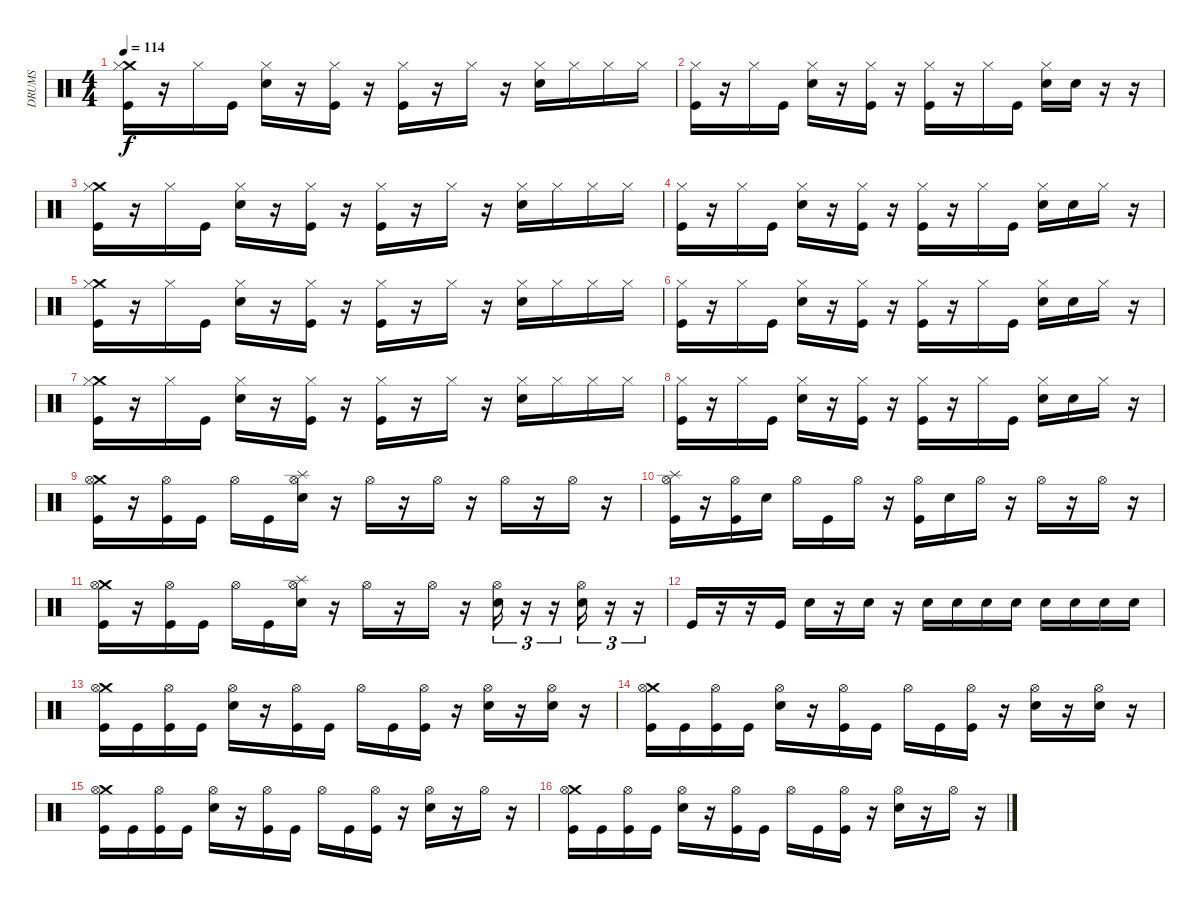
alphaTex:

\track ("DRUMS" "DRUMS") {instrument percussion}
\staff {score}
\articulation defaults
\ts (4 4)
\tempo 114
\clef neutral
\ks c
("Crash medium (hit)" "Hi-Hat (closed)" "Kick (hit)").16{dy f} r.16 "Hi-Hat (closed)".16 "Kick (hit)".16 ("Hi-Hat (closed)" "Electric Snare (hit)").16 r.16 ("Hi-Hat (closed)" "Kick (hit)").16 r.16 ("Hi-Hat (closed)" "Kick (hit)").16 r.16 "Hi-Hat (closed)".16 r.16 ("Hi-Hat (closed)" "Electric Snare (hit)").16 "Hi-Hat (closed)".16 "Hi-Hat (closed)".16 "Hi-Hat (closed)".16 |
("Hi-Hat (closed)" "Kick (hit)").16 r.16 "Hi-Hat (closed)".16 "Kick (hit)".16 ("Hi-Hat (closed)" "Electric Snare (hit)").16 r.16 ("Hi-Hat (closed)" "Kick (hit)").16 r.16 ("Hi-Hat (closed)" "Kick (hit)").16 r.16 "Hi-Hat (closed)".16 "Kick (hit)".16 ("Hi-Hat (closed)" "Electric Snare (hit)").16 "Electric Snare (hit)".16 r.16 r.16 |
("Crash medium (hit)" "Hi-Hat (closed)" "Kick (hit)").16 r.16 "Hi-Hat (closed)".16 "Kick (hit)".16 ("Hi-Hat (closed)" "Electric Snare (hit)").16 r.16 ("Hi-Hat (closed)" "Kick (hit)").16 r.16 ("Hi-Hat (closed)" "Kick (hit)").16 r.16 "Hi-Hat (closed)".16 r.16 ("Hi-Hat (closed)" "Electric Snare (hit)").16 "Hi-Hat (closed)".16 "Hi-Hat (closed)".16 "Hi-Hat (closed)".16 |
("Hi-Hat (closed)" "Kick (hit)").16 r.16 "Hi-Hat (closed)".16 "Kick (hit)".16 ("Hi-Hat (closed)" "Electric Snare (hit)").16 r.16 ("Hi-Hat (closed)" "Kick (hit)").16 r.16 ("Hi-Hat (closed)" "Kick (hit)").16 r.16 "Hi-Hat (closed)".16 "Kick (hit)".16 ("Hi-Hat (closed)" "Electric Snare (hit)").16 "Electric Snare (hit)".16 "Hi-Hat (closed)".16 r.16 |
("Crash medium (hit)" "Hi-Hat (closed)" "Kick (hit)").16 r.16 "Hi-Hat (closed)".16 "Kick (hit)".16 ("Hi-Hat (closed)" "Electric Snare (hit)").16 r.16 ("Hi-Hat (closed)" "Kick (hit)").16 r.16 ("Hi-Hat (closed)" "Kick (hit)").16 r.16 "Hi-Hat (closed)".16 r.16 ("Hi-Hat (closed)" "Electric Snare (hit)").16 "Hi-Hat (closed)".16 "Hi-Hat (closed)".16 "Hi-Hat (closed)".16 |
("Hi-Hat (closed)" "Kick (hit)").16 r.16 "Hi-Hat (closed)".16 "Kick (hit)".16 ("Hi-Hat (closed)" "Electric Snare (hit)").16 r.16 ("Hi-Hat (closed)" "Kick (hit)").16 r.16 ("Hi-Hat (closed)" "Kick (hit)").16 r.16 "Hi-Hat (closed)".16 "Kick (hit)".16 ("Hi-Hat (closed)" "Electric Snare (hit)").16 "Electric Snare (hit)".16 "Hi-Hat (closed)".16 r.16 |
("Crash medium (hit)" "Hi-Hat (closed)" "Kick (hit)").16 r.16 "Hi-Hat (closed)".16 "Kick (hit)".16 ("Hi-Hat (closed)" "Electric Snare (hit)").16 r.16 ("Hi-Hat (closed)" "Kick (hit)").16 r.16 ("Hi-Hat (closed)" "Kick (hit)").16 r.16 "Hi-Hat (closed)".16 r.16 ("Hi-Hat (closed)" "Electric Snare (hit)").16 "Hi-Hat (closed)".16 "Hi-Hat (closed)".16 "Hi-Hat (closed)".16 |
("Hi-Hat (closed)" "Kick (hit)").16 r.16 "Hi-Hat (closed)".16 "Kick (hit)".16 ("Hi-Hat (closed)" "Electric Snare (hit)").16 r.16 ("Hi-Hat (closed)" "Kick (hit)").16 r.16 ("Hi-Hat (closed)" "Kick (hit)").16 r.16 "Hi-Hat (closed)".16 "Kick (hit)".16 ("Hi-Hat (closed)" "Electric Snare (hit)").16 "Electric Snare (hit)".16 "Hi-Hat (closed)".16 r.16 |
("Crash medium (hit)" "Hi-Hat (open)" "Kick (hit)").16 r.16 ("Hi-Hat (open)" "Kick (hit)").16 "Kick (hit)".16 "Hi-Hat (open)".16 "Kick (hit)".16 ("Splash (hit)" "Hi-Hat (open)" "Electric Snare (hit)").16 r.16 "Hi-Hat (open)".16 r.16 "Hi-Hat (open)".16 r.16 "Hi-Hat (open)".16 r.16 "Hi-Hat (open)".16 r.16 |
("Splash (hit)" "Hi-Hat (open)" "Kick (hit)").16 r.16 ("Hi-Hat (open)" "Kick (hit)").16 "Electric Snare (hit)".16 "Hi-Hat (open)".16 "Kick (hit)".16 "Hi-Hat (open)".16 r.16 ("Hi-Hat (open)" "Kick (hit)").16 "Electric Snare (hit)".16 "Hi-Hat (open)".16 r.16 "Hi-Hat (open)".16 r.16 "Hi-Hat (open)".16 r.16 |
("Crash medium (hit)" "Hi-Hat (open)" "Kick (hit)").16 r.16 ("Hi-Hat (open)" "Kick (hit)").16 "Kick (hit)".16 "Hi-Hat (open)".16 "Kick (hit)".16 ("Splash (hit)" "Hi-Hat (open)" "Electric Snare (hit)").16 r.16 "Hi-Hat (open)".16 r.16 "Hi-Hat (open)".16 r.16 ("Hi-Hat (open)" "Electric Snare (hit)").16{tu (3 2)} r.16{tu (3 2)} r.16{tu (3 2)} ("Hi-Hat (open)" "Electric Snare (hit)").16{tu (3 2)} r.16{tu (3 2)} r.16{tu (3 2)} |
"Kick (hit)".16 r.16 r.16 "Kick (hit)".16 "Electric Snare (hit)".16 r.16 "Electric Snare (hit)".16 r.16 "Electric Snare (hit)".16 "Electric Snare (hit)".16 "Electric Snare (hit)".16 "Electric Snare (hit)".16 "Electric Snare (hit)".16 "Electric Snare (hit)".16 "Electric Snare (hit)".16 "Electric Snare (hit)".16 |
("Crash medium (hit)" "Hi-Hat (open)" "Kick (hit)").16 "Kick (hit)".16 ("Hi-Hat (open)" "Kick (hit)").16 "Kick (hit)".16 ("Hi-Hat (open)" "Electric Snare (hit)").16 r.16 ("Hi-Hat (open)" "Kick (hit)").16 "Kick (hit)".16 "Hi-Hat (open)".16 "Kick (hit)".16 ("Hi-Hat (open)" "Kick (hit)").16 r.16 ("Hi-Hat (open)" "Electric Snare (hit)").16 r.16 ("Hi-Hat (open)" "Electric Snare (hit)").16 r.16 |
("Crash medium (hit)" "Hi-Hat (open)" "Kick (hit)").16 "Kick (hit)".16 ("Hi-Hat (open)" "Kick (hit)").16 "Kick (hit)".16 ("Hi-Hat (open)" "Electric Snare (hit)").16 r.16 ("Hi-Hat (open)" "Kick (hit)").16 "Kick (hit)".16 "Hi-Hat (open)".16 "Kick (hit)".16 ("Hi-Hat (open)" "Kick (hit)").16 r.16 ("Hi-Hat (open)" "Electric Snare (hit)").16 r.16 ("Hi-Hat (open)" "Electric Snare (hit)").16 r.16 |
("Crash medium (hit)" "Hi-Hat (open)" "Kick (hit)").16 "Kick (hit)".16 ("Hi-Hat (open)" "Kick (hit)").16 "Kick (hit)".16 ("Hi-Hat (open)" "Electric Snare (hit)").16 r.16 ("Hi-Hat (open)" "Kick (hit)").16 "Kick (hit)".16 "Hi-Hat (open)".16 "Kick (hit)".16 ("Hi-Hat (open)" "Kick (hit)").16 r.16 ("Hi-Hat (open)" "Electric Snare (hit)").16 r.16 "Hi-Hat (open)".16 r.16 |
("Crash medium (hit)" "Hi-Hat (open)" "Kick (hit)").16 "Kick (hit)".16 ("Hi-Hat (open)" "Kick (hit)").16 "Kick (hit)".16 ("Hi-Hat (open)" "Electric Snare (hit)").16 r.16 ("Hi-Hat (open)" "Kick (hit)").16 "Kick (hit)".16 "Hi-Hat (open)".16 "Kick (hit)".16 ("Hi-Hat (open)" "Kick (hit)").16 r.16 ("Hi-Hat (open)" "Electric Snare (hit)").16 r.16 "Hi-Hat (open)".16 r.16
